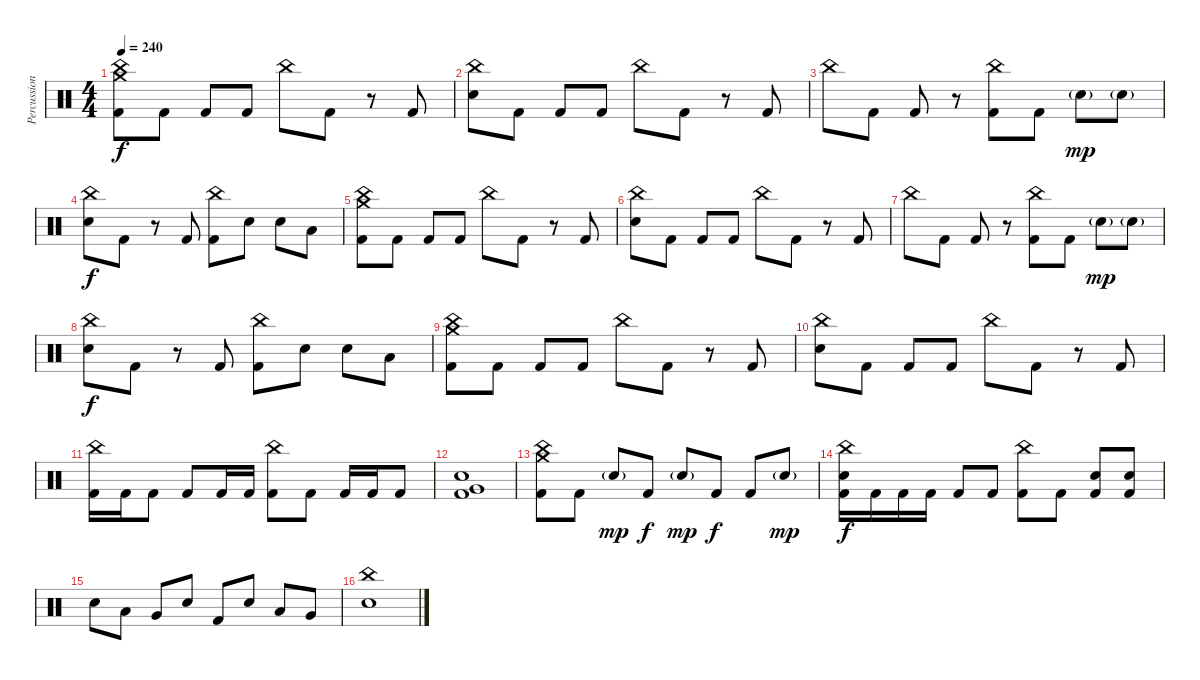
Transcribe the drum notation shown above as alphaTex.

\track ("Percussion" "Percussion") {instrument percussion}
\staff {score}
\articulation defaults
\ts (4 4)
\tempo 240
\clef neutral
\ks c
("Crash medium (hit)" "China (hit)" "Kick (hit) 2").8{dy f} "Kick (hit) 2".8 "Kick (hit) 2".8 "Kick (hit) 2".8 "China (hit)".8 "Kick (hit) 2".8 r.8 "Kick (hit) 2".8 |
("China (hit)" "Electric Snare (hit)").8 "Kick (hit) 2".8 "Kick (hit) 2".8 "Kick (hit) 2".8 "China (hit)".8 "Kick (hit) 2".8 r.8 "Kick (hit) 2".8 |
"China (hit)".8 "Kick (hit) 2".8 "Kick (hit) 2".8 r.8 ("China (hit)" "Kick (hit) 2").8 "Kick (hit) 2".8 "Electric Snare (hit)"{g}.8{dy mp} "Electric Snare (hit)"{g}.8 |
("China (hit)" "Electric Snare (hit)").8{dy f} "Kick (hit) 2".8 r.8 "Kick (hit) 2".8 ("China (hit)" "Kick (hit) 2").8 "Electric Snare (hit)".8 "Electric Snare (hit)".8 "Low Tom (hit)".8 |
("Crash medium (hit)" "China (hit)" "Kick (hit) 2").8 "Kick (hit) 2".8 "Kick (hit) 2".8 "Kick (hit) 2".8 "China (hit)".8 "Kick (hit) 2".8 r.8 "Kick (hit) 2".8 |
("China (hit)" "Electric Snare (hit)").8 "Kick (hit) 2".8 "Kick (hit) 2".8 "Kick (hit) 2".8 "China (hit)".8 "Kick (hit) 2".8 r.8 "Kick (hit) 2".8 |
"China (hit)".8 "Kick (hit) 2".8 "Kick (hit) 2".8 r.8 ("China (hit)" "Kick (hit) 2").8 "Kick (hit) 2".8 "Electric Snare (hit)"{g}.8{dy mp} "Electric Snare (hit)"{g}.8 |
("China (hit)" "Electric Snare (hit)").8{dy f} "Kick (hit) 2".8 r.8 "Kick (hit) 2".8 ("China (hit)" "Kick (hit) 2").8 "Electric Snare (hit)".8 "Electric Snare (hit)".8 "Low Tom (hit)".8 |
("Crash medium (hit)" "China (hit)" "Kick (hit) 2").8 "Kick (hit) 2".8 "Kick (hit) 2".8 "Kick (hit) 2".8 "China (hit)".8 "Kick (hit) 2".8 r.8 "Kick (hit) 2".8 |
("China (hit)" "Electric Snare (hit)").8 "Kick (hit) 2".8 "Kick (hit) 2".8 "Kick (hit) 2".8 "China (hit)".8 "Kick (hit) 2".8 r.8 "Kick (hit) 2".8 |
("China (hit)" "Kick (hit) 2").16 "Kick (hit) 2".16 "Kick (hit) 2".8 "Kick (hit) 2".8 "Kick (hit) 2".16 "Kick (hit) 2".16 ("China (hit)" "Kick (hit) 2").8 "Kick (hit) 2".8 "Kick (hit) 2".16 "Kick (hit) 2".16 "Kick (hit) 2".8 |
("Very Low Tom (hit)" "Electric Snare (hit)" "Kick (hit) 2").1 |
("China (hit)" "Crash medium (hit)" "Kick (hit) 2").8 "Kick (hit) 2".8 "Electric Snare (hit)"{g}.8{dy mp} "Kick (hit) 2".8{dy f} "Electric Snare (hit)"{g}.8{dy mp} "Kick (hit) 2".8{dy f} "Kick (hit) 2".8 "Electric Snare (hit)"{g}.8{dy mp} |
("China (hit)" "Electric Snare (hit)" "Kick (hit) 2").16{dy f} "Kick (hit) 2".16 "Kick (hit) 2".16 "Kick (hit) 2".16 "Kick (hit) 2".8 "Kick (hit) 2".8 ("China (hit)" "Kick (hit) 2").8 "Kick (hit) 2".8 ("Electric Snare (hit)" "Kick (hit) 2").8 ("Electric Snare (hit)" "Kick (hit) 2").8 |
"Electric Snare (hit)".8 "Low Tom (hit)".8 "Very Low Tom (hit)".8 "Electric Snare (hit)".8 "Kick (hit) 2".8 "Electric Snare (hit)".8 "Low Tom (hit)".8 "Very Low Tom (hit)".8 |
("China (hit)" "Electric Snare (hit)").1
